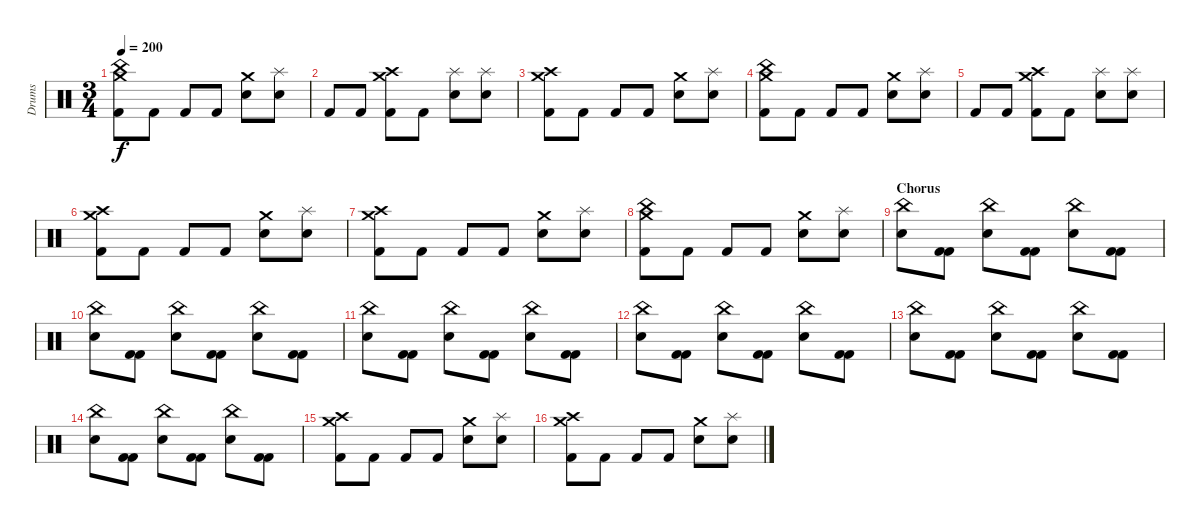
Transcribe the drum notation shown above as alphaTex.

\track ("Drums" "Drums") {instrument percussion}
\staff {score}
\articulation defaults
\ts (3 4)
\tempo 200
\clef neutral
\ks c
("China (hit)" "Crash medium (hit)" "Kick (hit) 2").8{dy f} "Kick (hit) 2".8 "Kick (hit) 2".8 "Kick (hit) 2".8 ("Crash medium (hit)" "Snare (hit) 2").8 ("Splash (hit)" "Snare (hit) 2").8 |
"Kick (hit) 2".8 "Kick (hit) 2".8 ("Crash medium (hit)" "Crash high (hit)" "Kick (hit) 2").8 "Kick (hit) 2".8 ("Splash (hit)" "Snare (hit) 2").8 ("Splash (hit)" "Snare (hit) 2").8 |
("Crash medium (hit)" "Crash high (hit)" "Kick (hit) 2").8 "Kick (hit) 2".8 "Kick (hit) 2".8 "Kick (hit) 2".8 ("Crash medium (hit)" "Snare (hit) 2").8 ("Splash (hit)" "Snare (hit) 2").8 |
("China (hit)" "Crash medium (hit)" "Kick (hit) 2").8 "Kick (hit) 2".8 "Kick (hit) 2".8 "Kick (hit) 2".8 ("Crash medium (hit)" "Snare (hit) 2").8 ("Splash (hit)" "Snare (hit) 2").8 |
"Kick (hit) 2".8 "Kick (hit) 2".8 ("Crash medium (hit)" "Crash high (hit)" "Kick (hit) 2").8 "Kick (hit) 2".8 ("Splash (hit)" "Snare (hit) 2").8 ("Splash (hit)" "Snare (hit) 2").8 |
("Crash medium (hit)" "Crash high (hit)" "Kick (hit) 2").8 "Kick (hit) 2".8 "Kick (hit) 2".8 "Kick (hit) 2".8 ("Crash medium (hit)" "Snare (hit) 2").8 ("Splash (hit)" "Snare (hit) 2").8 |
("Crash medium (hit)" "Crash high (hit)" "Kick (hit) 2").8 "Kick (hit) 2".8 "Kick (hit) 2".8 "Kick (hit) 2".8 ("Crash medium (hit)" "Snare (hit) 2").8 ("Splash (hit)" "Snare (hit) 2").8 |
("China (hit)" "Crash medium (hit)" "Kick (hit) 2").8 "Kick (hit) 2".8 "Kick (hit) 2".8 "Kick (hit) 2".8 ("Crash medium (hit)" "Snare (hit) 2").8 ("Splash (hit)" "Snare (hit) 2").8 |
\section ("" "Chorus")
("China (hit)" "Snare (hit) 2").8 ("Kick (hit) 2" "Kick (hit) 2").8 ("China (hit)" "Snare (hit) 2").8 ("Kick (hit) 2" "Kick (hit) 2").8 ("China (hit)" "Snare (hit) 2").8 ("Kick (hit) 2" "Kick (hit) 2").8 |
("China (hit)" "Snare (hit) 2").8 ("Kick (hit) 2" "Kick (hit) 2").8 ("China (hit)" "Snare (hit) 2").8 ("Kick (hit) 2" "Kick (hit) 2").8 ("China (hit)" "Snare (hit) 2").8 ("Kick (hit) 2" "Kick (hit) 2").8 |
("China (hit)" "Snare (hit) 2").8 ("Kick (hit) 2" "Kick (hit) 2").8 ("China (hit)" "Snare (hit) 2").8 ("Kick (hit) 2" "Kick (hit) 2").8 ("China (hit)" "Snare (hit) 2").8 ("Kick (hit) 2" "Kick (hit) 2").8 |
("China (hit)" "Snare (hit) 2").8 ("Kick (hit) 2" "Kick (hit) 2").8 ("China (hit)" "Snare (hit) 2").8 ("Kick (hit) 2" "Kick (hit) 2").8 ("China (hit)" "Snare (hit) 2").8 ("Kick (hit) 2" "Kick (hit) 2").8 |
("China (hit)" "Snare (hit) 2").8 ("Kick (hit) 2" "Kick (hit) 2").8 ("China (hit)" "Snare (hit) 2").8 ("Kick (hit) 2" "Kick (hit) 2").8 ("China (hit)" "Snare (hit) 2").8 ("Kick (hit) 2" "Kick (hit) 2").8 |
("China (hit)" "Snare (hit) 2").8 ("Kick (hit) 2" "Kick (hit) 2").8 ("China (hit)" "Snare (hit) 2").8 ("Kick (hit) 2" "Kick (hit) 2").8 ("China (hit)" "Snare (hit) 2").8 ("Kick (hit) 2" "Kick (hit) 2").8 |
("Crash medium (hit)" "Crash high (hit)" "Kick (hit) 2").8 "Kick (hit) 2".8 "Kick (hit) 2".8 "Kick (hit) 2".8 ("Crash medium (hit)" "Snare (hit) 2").8 ("Splash (hit)" "Snare (hit) 2").8 |
("Crash medium (hit)" "Crash high (hit)" "Kick (hit) 2").8 "Kick (hit) 2".8 "Kick (hit) 2".8 "Kick (hit) 2".8 ("Crash medium (hit)" "Snare (hit) 2").8 ("Splash (hit)" "Snare (hit) 2").8
